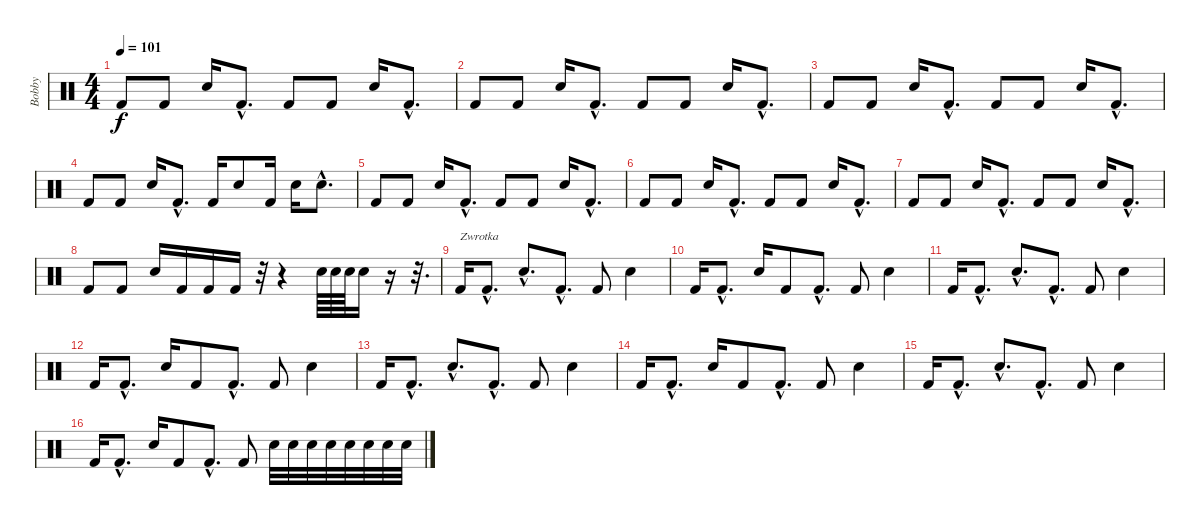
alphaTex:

\track ("Bobby " "Bobby ") {instrument percussion}
\staff {score}
\articulation defaults
\ts (4 4)
\tempo 101
\clef neutral
\ks c "Kick (hit) 2".8{dy f} "Kick (hit) 2".8 "Electric Snare (hit)".16 "Kick (hit) 2"{hac}.8{d} "Kick (hit) 2".8 "Kick (hit) 2".8 "Electric Snare (hit)".16 "Kick (hit) 2"{hac}.8{d}
|
"Kick (hit) 2".8 "Kick (hit) 2".8 "Electric Snare (hit)".16 "Kick (hit) 2"{hac}.8{d} "Kick (hit) 2".8 "Kick (hit) 2".8 "Electric Snare (hit)".16 "Kick (hit) 2"{hac}.8{d} |
"Kick (hit) 2".8 "Kick (hit) 2".8 "Electric Snare (hit)".16 "Kick (hit) 2"{hac}.8{d} "Kick (hit) 2".8 "Kick (hit) 2".8 "Electric Snare (hit)".16 "Kick (hit) 2"{hac}.8{d} |
"Kick (hit) 2".8 "Kick (hit) 2".8 "Electric Snare (hit)".16 "Kick (hit) 2"{hac}.8{d} "Kick (hit) 2".16 "Electric Snare (hit)".8 "Kick (hit) 2".16 "Electric Snare (hit)".16 "Electric Snare (hit)"{hac}.8{d} |
"Kick (hit) 2".8 "Kick (hit) 2".8 "Electric Snare (hit)".16 "Kick (hit) 2"{hac}.8{d} "Kick (hit) 2".8 "Kick (hit) 2".8 "Electric Snare (hit)".16 "Kick (hit) 2"{hac}.8{d} |
"Kick (hit) 2".8 "Kick (hit) 2".8 "Electric Snare (hit)".16 "Kick (hit) 2"{hac}.8{d} "Kick (hit) 2".8 "Kick (hit) 2".8 "Electric Snare (hit)".16 "Kick (hit) 2"{hac}.8{d} |
"Kick (hit) 2".8 "Kick (hit) 2".8 "Electric Snare (hit)".16 "Kick (hit) 2"{hac}.8{d} "Kick (hit) 2".8 "Kick (hit) 2".8 "Electric Snare (hit)".16 "Kick (hit) 2"{hac}.8{d} |
"Kick (hit) 2".8 "Kick (hit) 2".8 "Electric Snare (hit)".16 "Kick (hit) 2".16 "Kick (hit) 2".16 "Kick (hit) 2".16 r.32 r.4 "Electric Snare (hit)".64 "Electric Snare (hit)".64 "Electric Snare (hit)".64 "Electric Snare (hit)".16 r.16 r.32{d} |
"Kick (hit) 2".16{txt "Zwrotka"} "Kick (hit) 2"{hac}.8{d} "Electric Snare (hit)"{hac}.8{d} "Kick (hit) 2"{hac}.8{d} "Kick (hit) 2".8 "Electric Snare (hit)".4 |
"Kick (hit) 2".16 "Kick (hit) 2"{hac}.8{d} "Electric Snare (hit)".16 "Kick (hit) 2".8 "Kick (hit) 2"{hac}.8{d} "Kick (hit) 2".8 "Electric Snare (hit)".4 |
"Kick (hit) 2".16 "Kick (hit) 2"{hac}.8{d} "Electric Snare (hit)"{hac}.8{d} "Kick (hit) 2"{hac}.8{d} "Kick (hit) 2".8 "Electric Snare (hit)".4 |
"Kick (hit) 2".16 "Kick (hit) 2"{hac}.8{d} "Electric Snare (hit)".16 "Kick (hit) 2".8 "Kick (hit) 2"{hac}.8{d} "Kick (hit) 2".8 "Electric Snare (hit)".4 |
"Kick (hit) 2".16 "Kick (hit) 2"{hac}.8{d} "Electric Snare (hit)"{hac}.8{d} "Kick (hit) 2"{hac}.8{d} "Kick (hit) 2".8 "Electric Snare (hit)".4 |
"Kick (hit) 2".16 "Kick (hit) 2"{hac}.8{d} "Electric Snare (hit)".16 "Kick (hit) 2".8 "Kick (hit) 2"{hac}.8{d} "Kick (hit) 2".8 "Electric Snare (hit)".4 |
"Kick (hit) 2".16 "Kick (hit) 2"{hac}.8{d} "Electric Snare (hit)"{hac}.8{d} "Kick (hit) 2"{hac}.8{d} "Kick (hit) 2".8 "Electric Snare (hit)".4 |
"Kick (hit) 2".16 "Kick (hit) 2"{hac}.8{d} "Electric Snare (hit)".16 "Kick (hit) 2".8 "Kick (hit) 2"{hac}.8{d} "Kick (hit) 2".8 "Electric Snare (hit)".32 "Electric Snare (hit)".32 "Electric Snare (hit)".32 "Electric Snare (hit)".32 "Electric Snare (hit)".32 "Electric Snare (hit)".32 "Electric Snare (hit)".32 "Electric Snare (hit)".32
